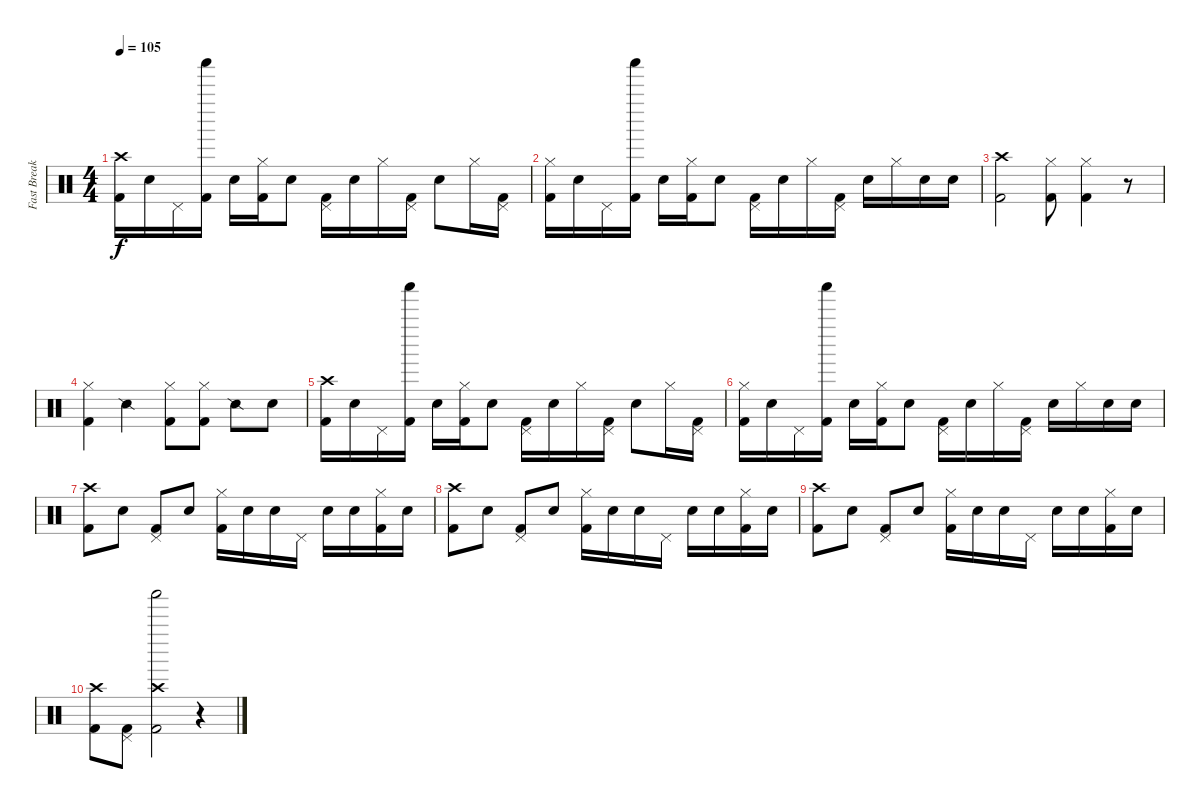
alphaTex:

\track ("Fast Break Drums" "Fast Break") {instrument percussion}
\staff {score}
\articulation defaults
\ts (4 4)
\tempo 105
\clef neutral
\ks c
("Kick (hit) 2" "Crash high (hit)").16{dy f} "Electric Snare (hit)".16 "Pedal Hi-Hat (hit)".16 ("Kick (hit) 2" "Shaker (hit)").16 "Snare (hit) 2".16 ("Kick (hit) 2" "Hi-Hat (closed)").16 "Snare (hit) 2".8 ("Kick (hit) 2" "Pedal Hi-Hat (hit)").16 "Electric Snare (hit)".16 "Hi-Hat (closed)".16 ("Kick (hit) 2" "Pedal Hi-Hat (hit)").16 "Snare (hit) 2".8 "Hi-Hat (closed)".16 ("Kick (hit) 2" "Pedal Hi-Hat (hit)").16 |
("Kick (hit) 2" "Hi-Hat (closed)").16 "Electric Snare (hit)".16 "Pedal Hi-Hat (hit)".16 ("Kick (hit) 2" "Shaker (hit)").16 "Snare (hit) 2".16 ("Kick (hit) 2" "Hi-Hat (closed)").16 "Snare (hit) 2".8 ("Kick (hit) 2" "Pedal Hi-Hat (hit)").16 "Electric Snare (hit)".16 "Hi-Hat (closed)".16 ("Kick (hit) 2" "Pedal Hi-Hat (hit)").16 "Snare (hit) 2".16 "Hi-Hat (closed)".16 "Snare (hit) 2".16 "Electric Snare (hit)".16 |
("Kick (hit) 2" "Crash high (hit)").2 ("Kick (hit) 2" "Hi-Hat (closed)").8 ("Kick (hit) 2" "Hi-Hat (closed)").4 r.8 |
("Kick (hit) 2" "Hi-Hat (closed)").4 "Snare (side stick) 2".4 ("Kick (hit) 2" "Hi-Hat (closed)").8 ("Kick (hit) 2" "Hi-Hat (closed)").8 "Snare (side stick) 2".8 "Snare (hit) 2".8 |
("Kick (hit) 2" "Crash high (hit)").16 "Electric Snare (hit)".16 "Pedal Hi-Hat (hit)".16 ("Kick (hit) 2" "Shaker (hit)").16 "Snare (hit) 2".16 ("Kick (hit) 2" "Hi-Hat (closed)").16 "Snare (hit) 2".8 ("Kick (hit) 2" "Pedal Hi-Hat (hit)").16 "Electric Snare (hit)".16 "Hi-Hat (closed)".16 ("Kick (hit) 2" "Pedal Hi-Hat (hit)").16 "Snare (hit) 2".8 "Hi-Hat (closed)".16 ("Kick (hit) 2" "Pedal Hi-Hat (hit)").16 |
("Kick (hit) 2" "Hi-Hat (closed)").16 "Electric Snare (hit)".16 "Pedal Hi-Hat (hit)".16 ("Kick (hit) 2" "Shaker (hit)").16 "Snare (hit) 2".16 ("Kick (hit) 2" "Hi-Hat (closed)").16 "Snare (hit) 2".8 ("Kick (hit) 2" "Pedal Hi-Hat (hit)").16 "Electric Snare (hit)".16 "Hi-Hat (closed)".16 ("Kick (hit) 2" "Pedal Hi-Hat (hit)").16 "Snare (hit) 2".16 "Hi-Hat (closed)".16 "Snare (hit) 2".16 "Electric Snare (hit)".16 |
("Kick (hit) 2" "Crash high (hit)").8 "Electric Snare (hit)".8 ("Kick (hit) 2" "Pedal Hi-Hat (hit)").8 "Snare (hit) 2".8 ("Kick (hit) 2" "Hi-Hat (closed)").16 "Electric Snare (hit)".16 "Snare (hit) 2".16 "Pedal Hi-Hat (hit)".16 "Snare (hit) 2".16 "Electric Snare (hit)".16 ("Kick (hit) 2" "Hi-Hat (closed)").16 "Electric Snare (hit)".16 |
("Kick (hit) 2" "Crash high (hit)").8 "Electric Snare (hit)".8 ("Kick (hit) 2" "Pedal Hi-Hat (hit)").8 "Snare (hit) 2".8 ("Kick (hit) 2" "Hi-Hat (closed)").16 "Electric Snare (hit)".16 "Snare (hit) 2".16 "Pedal Hi-Hat (hit)".16 "Snare (hit) 2".16 "Electric Snare (hit)".16 ("Kick (hit) 2" "Hi-Hat (closed)").16 "Electric Snare (hit)".16 |
("Kick (hit) 2" "Crash high (hit)").8 "Electric Snare (hit)".8 ("Kick (hit) 2" "Pedal Hi-Hat (hit)").8 "Snare (hit) 2".8 ("Kick (hit) 2" "Hi-Hat (closed)").16 "Electric Snare (hit)".16 "Snare (hit) 2".16 "Pedal Hi-Hat (hit)".16 "Snare (hit) 2".16 "Electric Snare (hit)".16 ("Kick (hit) 2" "Hi-Hat (closed)").16 "Electric Snare (hit)".16 |
("Kick (hit) 2" "Crash high (hit)").8 ("Kick (hit) 2" "Pedal Hi-Hat (hit)").8 ("Kick (hit) 2" "Shaker (hit)" "Crash high (hit)").2 r.4
